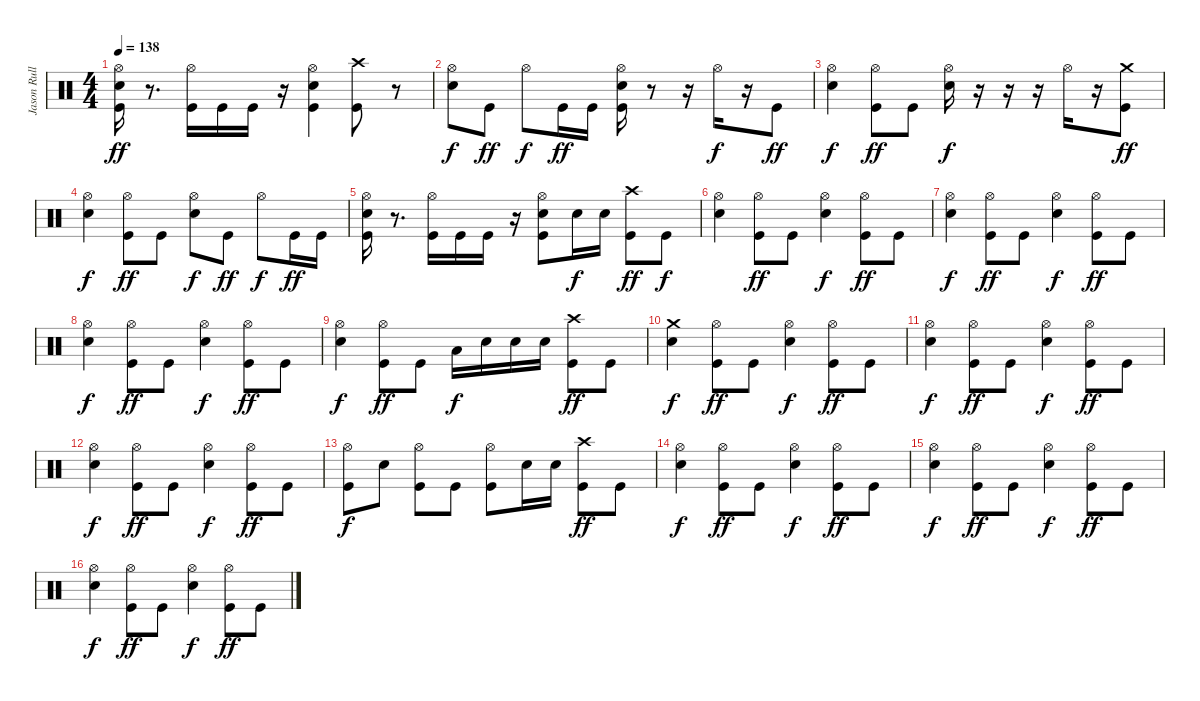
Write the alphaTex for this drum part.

\track ("Jason Rullo" "Jason Rull") {instrument percussion}
\staff {score}
\articulation defaults
\ts (4 4)
\tempo 138
\clef neutral
\ks c
("Kick (hit)" "Snare (hit) 2" "Hi-Hat (open)").16{dy ff} r.8{d} ("Kick (hit)" "Hi-Hat (open)").16 "Kick (hit)".16 "Kick (hit)".16 r.16 ("Kick (hit)" "Snare (hit) 2" "Hi-Hat (open)").4 ("Kick (hit)" "Crash high (hit)").8 r.8 |
("Snare (hit) 2" "Hi-Hat (open)").8{dy f} "Kick (hit)".8{dy ff} "Hi-Hat (open)".8{dy f} "Kick (hit)".16{dy ff} "Kick (hit)".16 ("Kick (hit)" "Snare (hit) 2" "Hi-Hat (open)").16 r.8 r.16 "Hi-Hat (open)".16{dy f} r.16 "Kick (hit)".8{dy ff} |
("Snare (hit) 2" "Hi-Hat (open)").4{dy f} ("Kick (hit)" "Hi-Hat (open)").8{dy ff} "Kick (hit)".8 ("Snare (hit) 2" "Hi-Hat (open)").16{dy f} r.16 r.16 r.16 "Hi-Hat (open)".16 r.16 ("Kick (hit)" "Crash medium (hit)").8{dy ff} |
("Snare (hit) 2" "Hi-Hat (open)").4{dy f} ("Kick (hit)" "Hi-Hat (open)").8{dy ff} "Kick (hit)".8 ("Snare (hit) 2" "Hi-Hat (open)").8{dy f} "Kick (hit)".8{dy ff} "Hi-Hat (open)".8{dy f} "Kick (hit)".16{dy ff} "Kick (hit)".16 |
("Kick (hit)" "Snare (hit) 2" "Hi-Hat (open)").16 r.8{d} ("Kick (hit)" "Hi-Hat (open)").16 "Kick (hit)".16 "Kick (hit)".16 r.16 ("Kick (hit)" "Snare (hit) 2" "Hi-Hat (open)").8 "Snare (hit) 2".16{dy f} "Snare (hit) 2".16 ("Kick (hit)" "Crash high (hit)").8{dy ff} "Kick (hit)".8{dy f} |
("Snare (hit) 2" "Hi-Hat (open)").4 ("Kick (hit)" "Hi-Hat (open)").8{dy ff} "Kick (hit)".8 ("Snare (hit) 2" "Hi-Hat (open)").4{dy f} ("Kick (hit)" "Hi-Hat (open)").8{dy ff} "Kick (hit)".8 |
("Snare (hit) 2" "Hi-Hat (open)").4{dy f} ("Kick (hit)" "Hi-Hat (open)").8{dy ff} "Kick (hit)".8 ("Snare (hit) 2" "Hi-Hat (open)").4{dy f} ("Kick (hit)" "Hi-Hat (open)").8{dy ff} "Kick (hit)".8 |
("Snare (hit) 2" "Hi-Hat (open)").4{dy f} ("Kick (hit)" "Hi-Hat (open)").8{dy ff} "Kick (hit)".8 ("Snare (hit) 2" "Hi-Hat (open)").4{dy f} ("Kick (hit)" "Hi-Hat (open)").8{dy ff} "Kick (hit)".8 |
("Snare (hit) 2" "Hi-Hat (open)").4{dy f} ("Kick (hit)" "Hi-Hat (open)").8{dy ff} "Kick (hit)".8 "Low Tom (hit)".16{dy f} "Snare (hit) 2".16 "Snare (hit) 2".16 "Snare (hit) 2".16 ("Kick (hit)" "Crash high (hit)").8{dy ff} "Kick (hit)".8 |
("Snare (hit) 2" "Crash medium (hit)").4{dy f} ("Kick (hit)" "Hi-Hat (open)").8{dy ff} "Kick (hit)".8 ("Snare (hit) 2" "Hi-Hat (open)").4{dy f} ("Kick (hit)" "Hi-Hat (open)").8{dy ff} "Kick (hit)".8 |
("Snare (hit) 2" "Hi-Hat (open)").4{dy f} ("Kick (hit)" "Hi-Hat (open)").8{dy ff} "Kick (hit)".8 ("Snare (hit) 2" "Hi-Hat (open)").4{dy f} ("Kick (hit)" "Hi-Hat (open)").8{dy ff} "Kick (hit)".8 |
("Snare (hit) 2" "Hi-Hat (open)").4{dy f} ("Kick (hit)" "Hi-Hat (open)").8{dy ff} "Kick (hit)".8 ("Snare (hit) 2" "Hi-Hat (open)").4{dy f} ("Kick (hit)" "Hi-Hat (open)").8{dy ff} "Kick (hit)".8 |
("Kick (hit)" "Hi-Hat (open)").8{dy f} "Snare (hit) 2".8 ("Kick (hit)" "Hi-Hat (open)").8 "Kick (hit)".8 ("Kick (hit)" "Hi-Hat (open)").8 "Snare (hit) 2".16 "Snare (hit) 2".16 ("Kick (hit)" "Crash high (hit)").8{dy ff} "Kick (hit)".8 |
("Snare (hit) 2" "Hi-Hat (open)").4{dy f} ("Kick (hit)" "Hi-Hat (open)").8{dy ff} "Kick (hit)".8 ("Snare (hit) 2" "Hi-Hat (open)").4{dy f} ("Kick (hit)" "Hi-Hat (open)").8{dy ff} "Kick (hit)".8 |
("Snare (hit) 2" "Hi-Hat (open)").4{dy f} ("Kick (hit)" "Hi-Hat (open)").8{dy ff} "Kick (hit)".8 ("Snare (hit) 2" "Hi-Hat (open)").4{dy f} ("Kick (hit)" "Hi-Hat (open)").8{dy ff} "Kick (hit)".8 |
("Snare (hit) 2" "Hi-Hat (open)").4{dy f} ("Kick (hit)" "Hi-Hat (open)").8{dy ff} "Kick (hit)".8 ("Snare (hit) 2" "Hi-Hat (open)").4{dy f} ("Kick (hit)" "Hi-Hat (open)").8{dy ff} "Kick (hit)".8
